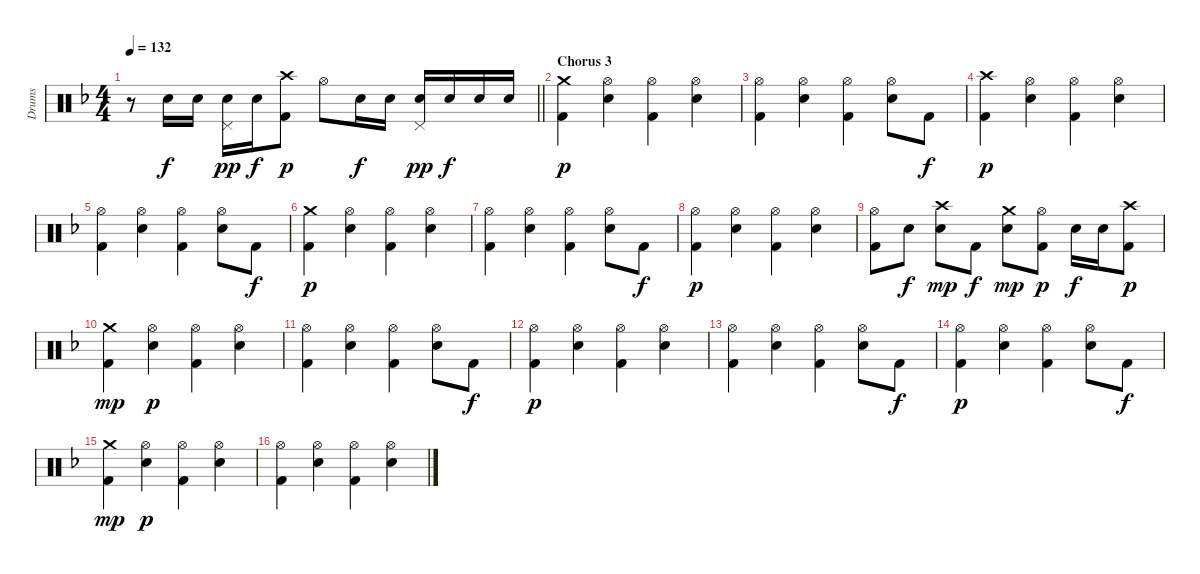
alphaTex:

\track ("Drums" "Drums") {instrument percussion}
\staff {score}
\articulation defaults
\ts (4 4)
\tempo 132
\clef neutral
\barLineRight lightlight
\ks f
r.8{dy p} "Electric Snare (hit)".16{dy f} "Electric Snare (hit)".16 ("Electric Snare (hit)" "Pedal Hi-Hat (hit)").16{dy pp} "Electric Snare (hit)".16{dy f} ("Crash high (hit)" "Kick (hit) 2").8{dy p} "Hi-Hat (open)".8 "Electric Snare (hit)".16{dy f} "Electric Snare (hit)".16 ("Electric Snare (hit)" "Pedal Hi-Hat (hit)").16{dy pp} "Electric Snare (hit)".16{dy f} "Electric Snare (hit)".16 "Electric Snare (hit)".16 |
\section ("" "Chorus 3")
("Crash medium (hit)" "Kick (hit) 2").4{dy p} ("Hi-Hat (open)" "Electric Snare (hit)").4 ("Hi-Hat (open)" "Kick (hit) 2").4 ("Hi-Hat (open)" "Electric Snare (hit)").4 |
("Hi-Hat (open)" "Kick (hit) 2").4 ("Hi-Hat (open)" "Electric Snare (hit)").4 ("Hi-Hat (open)" "Kick (hit) 2").4 ("Hi-Hat (open)" "Electric Snare (hit)").8 "Kick (hit) 2".8{dy f} |
("Crash high (hit)" "Kick (hit) 2").4{dy p} ("Hi-Hat (open)" "Electric Snare (hit)").4 ("Hi-Hat (open)" "Kick (hit) 2").4 ("Hi-Hat (open)" "Electric Snare (hit)").4 |
("Hi-Hat (open)" "Kick (hit) 2").4 ("Hi-Hat (open)" "Electric Snare (hit)").4 ("Hi-Hat (open)" "Kick (hit) 2").4 ("Hi-Hat (open)" "Electric Snare (hit)").8 "Kick (hit) 2".8{dy f} |
("Crash medium (hit)" "Kick (hit) 2").4{dy p} ("Hi-Hat (open)" "Electric Snare (hit)").4 ("Hi-Hat (open)" "Kick (hit) 2").4 ("Hi-Hat (open)" "Electric Snare (hit)").4 |
("Hi-Hat (open)" "Kick (hit) 2").4 ("Hi-Hat (open)" "Electric Snare (hit)").4 ("Hi-Hat (open)" "Kick (hit) 2").4 ("Hi-Hat (open)" "Electric Snare (hit)").8 "Kick (hit) 2".8{dy f} |
("Hi-Hat (open)" "Kick (hit) 2").4{dy p} ("Hi-Hat (open)" "Electric Snare (hit)").4 ("Hi-Hat (open)" "Kick (hit) 2").4 ("Hi-Hat (open)" "Electric Snare (hit)").4 |
("Hi-Hat (open)" "Kick (hit) 2").8 "Electric Snare (hit)".8{dy f} ("Crash high (hit)" "Electric Snare (hit)").8{dy mp} "Kick (hit) 2".8{dy f} ("Crash medium (hit)" "Electric Snare (hit)").8{dy mp} ("Kick (hit) 2" "Hi-Hat (open)").8{dy p} "Electric Snare (hit)".16{dy f} "Electric Snare (hit)".16 ("Kick (hit) 2" "Crash high (hit)").8{dy p} |
("Crash medium (hit)" "Kick (hit) 2").4{dy mp} ("Hi-Hat (open)" "Electric Snare (hit)").4{dy p} ("Hi-Hat (open)" "Kick (hit) 2").4 ("Hi-Hat (open)" "Electric Snare (hit)").4 |
("Hi-Hat (open)" "Kick (hit) 2").4 ("Hi-Hat (open)" "Electric Snare (hit)").4 ("Hi-Hat (open)" "Kick (hit) 2").4 ("Hi-Hat (open)" "Electric Snare (hit)").8 "Kick (hit) 2".8{dy f} |
("Hi-Hat (open)" "Kick (hit) 2").4{dy p} ("Hi-Hat (open)" "Electric Snare (hit)").4 ("Hi-Hat (open)" "Kick (hit) 2").4 ("Hi-Hat (open)" "Electric Snare (hit)").4 |
("Hi-Hat (open)" "Kick (hit) 2").4 ("Hi-Hat (open)" "Electric Snare (hit)").4 ("Hi-Hat (open)" "Kick (hit) 2").4 ("Hi-Hat (open)" "Electric Snare (hit)").8 "Kick (hit) 2".8{dy f} |
("Hi-Hat (open)" "Kick (hit) 2").4{dy p} ("Hi-Hat (open)" "Electric Snare (hit)").4 ("Hi-Hat (open)" "Kick (hit) 2").4 ("Hi-Hat (open)" "Electric Snare (hit)").8 "Kick (hit) 2".8{dy f} |
("Crash medium (hit)" "Kick (hit) 2").4{dy mp} ("Hi-Hat (open)" "Electric Snare (hit)").4{dy p} ("Hi-Hat (open)" "Kick (hit) 2").4 ("Hi-Hat (open)" "Electric Snare (hit)").4 |
("Hi-Hat (open)" "Kick (hit) 2").4 ("Hi-Hat (open)" "Electric Snare (hit)").4 ("Hi-Hat (open)" "Kick (hit) 2").4 ("Hi-Hat (open)" "Electric Snare (hit)").4
